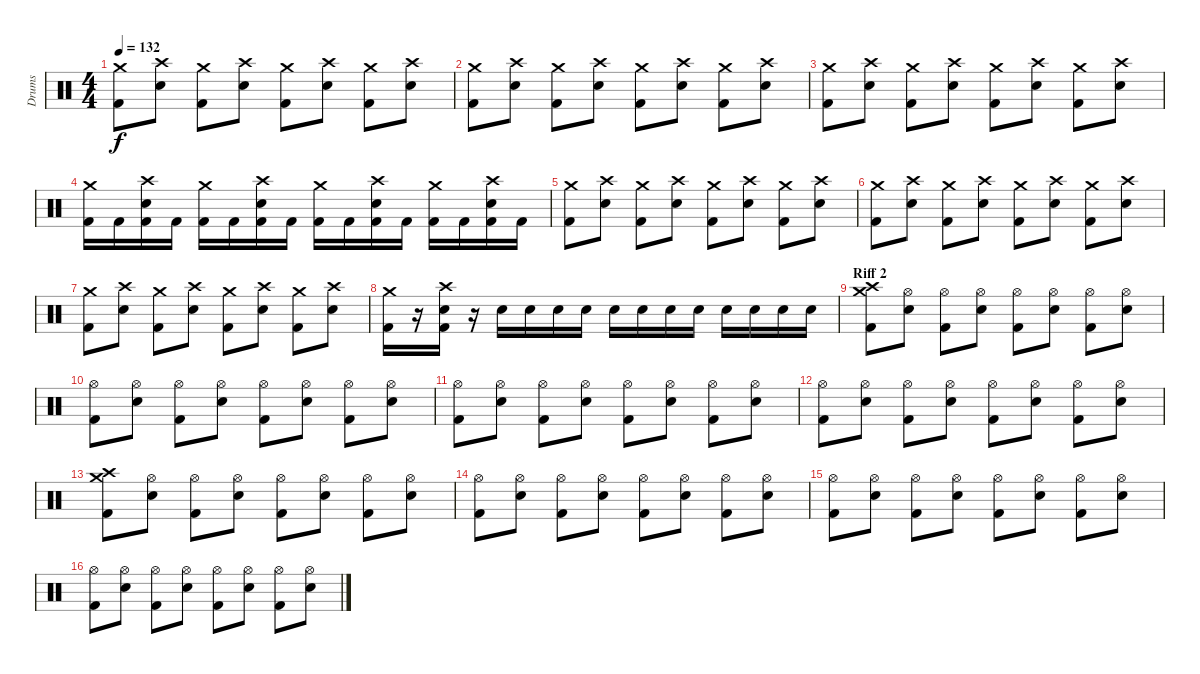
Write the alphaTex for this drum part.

\track ("Drums" "Drums") {instrument percussion}
\staff {score}
\articulation defaults
\ts (4 4)
\tempo 132
\clef neutral
\ks c
("Crash medium (hit)" "Kick (hit) 2").8{dy f} ("Crash high (hit)" "Electric Snare (hit)").8 ("Crash medium (hit)" "Kick (hit) 2").8 ("Crash high (hit)" "Electric Snare (hit)").8 ("Crash medium (hit)" "Kick (hit) 2").8 ("Crash high (hit)" "Electric Snare (hit)").8 ("Crash medium (hit)" "Kick (hit) 2").8 ("Crash high (hit)" "Electric Snare (hit)").8 |
("Crash medium (hit)" "Kick (hit) 2").8 ("Crash high (hit)" "Electric Snare (hit)").8 ("Crash medium (hit)" "Kick (hit) 2").8 ("Crash high (hit)" "Electric Snare (hit)").8 ("Crash medium (hit)" "Kick (hit) 2").8 ("Crash high (hit)" "Electric Snare (hit)").8 ("Crash medium (hit)" "Kick (hit) 2").8 ("Crash high (hit)" "Electric Snare (hit)").8 |
("Crash medium (hit)" "Kick (hit) 2").8 ("Crash high (hit)" "Electric Snare (hit)").8 ("Crash medium (hit)" "Kick (hit) 2").8 ("Crash high (hit)" "Electric Snare (hit)").8 ("Crash medium (hit)" "Kick (hit) 2").8 ("Crash high (hit)" "Electric Snare (hit)").8 ("Crash medium (hit)" "Kick (hit) 2").8 ("Crash high (hit)" "Electric Snare (hit)").8 |
("Crash medium (hit)" "Kick (hit) 2").16 "Kick (hit) 2".16 ("Crash high (hit)" "Kick (hit) 2" "Electric Snare (hit)").16 "Kick (hit) 2".16 ("Crash medium (hit)" "Kick (hit) 2").16 "Kick (hit) 2".16 ("Crash high (hit)" "Kick (hit) 2" "Electric Snare (hit)").16 "Kick (hit) 2".16 ("Crash medium (hit)" "Kick (hit) 2").16 "Kick (hit) 2".16 ("Crash high (hit)" "Kick (hit) 2" "Electric Snare (hit)").16 "Kick (hit) 2".16 ("Crash medium (hit)" "Kick (hit) 2").16 "Kick (hit) 2".16 ("Crash high (hit)" "Kick (hit) 2" "Electric Snare (hit)").16 "Kick (hit) 2".16 |
("Crash medium (hit)" "Kick (hit) 2").8 ("Crash high (hit)" "Electric Snare (hit)").8 ("Crash medium (hit)" "Kick (hit) 2").8 ("Crash high (hit)" "Electric Snare (hit)").8 ("Crash medium (hit)" "Kick (hit) 2").8 ("Crash high (hit)" "Electric Snare (hit)").8 ("Crash medium (hit)" "Kick (hit) 2").8 ("Crash high (hit)" "Electric Snare (hit)").8 |
("Crash medium (hit)" "Kick (hit) 2").8 ("Crash high (hit)" "Electric Snare (hit)").8 ("Crash medium (hit)" "Kick (hit) 2").8 ("Crash high (hit)" "Electric Snare (hit)").8 ("Crash medium (hit)" "Kick (hit) 2").8 ("Crash high (hit)" "Electric Snare (hit)").8 ("Crash medium (hit)" "Kick (hit) 2").8 ("Crash high (hit)" "Electric Snare (hit)").8 |
("Crash medium (hit)" "Kick (hit) 2").8 ("Crash high (hit)" "Electric Snare (hit)").8 ("Crash medium (hit)" "Kick (hit) 2").8 ("Crash high (hit)" "Electric Snare (hit)").8 ("Crash medium (hit)" "Kick (hit) 2").8 ("Crash high (hit)" "Electric Snare (hit)").8 ("Crash medium (hit)" "Kick (hit) 2").8 ("Crash high (hit)" "Electric Snare (hit)").8 |
("Crash medium (hit)" "Kick (hit) 2").16 r.16 ("Crash high (hit)" "Kick (hit) 2" "Electric Snare (hit)").16 r.16 "Electric Snare (hit)".16 "Electric Snare (hit)".16 "Electric Snare (hit)".16 "Electric Snare (hit)".16 "Electric Snare (hit)".16 "Electric Snare (hit)".16 "Electric Snare (hit)".16 "Electric Snare (hit)".16 "Electric Snare (hit)".16 "Electric Snare (hit)".16 "Electric Snare (hit)".16 "Electric Snare (hit)".16 |
\section ("" "Riff 2")
("Crash high (hit)" "Crash medium (hit)" "Kick (hit) 2").8 ("Hi-Hat (open)" "Electric Snare (hit)").8 ("Hi-Hat (open)" "Kick (hit) 2").8 ("Hi-Hat (open)" "Electric Snare (hit)").8 ("Hi-Hat (open)" "Kick (hit) 2").8 ("Hi-Hat (open)" "Electric Snare (hit)").8 ("Hi-Hat (open)" "Kick (hit) 2").8 ("Hi-Hat (open)" "Electric Snare (hit)").8 |
("Hi-Hat (open)" "Kick (hit) 2").8 ("Hi-Hat (open)" "Electric Snare (hit)").8 ("Hi-Hat (open)" "Kick (hit) 2").8 ("Hi-Hat (open)" "Electric Snare (hit)").8 ("Hi-Hat (open)" "Kick (hit) 2").8 ("Hi-Hat (open)" "Electric Snare (hit)").8 ("Hi-Hat (open)" "Kick (hit) 2").8 ("Hi-Hat (open)" "Electric Snare (hit)").8 |
("Hi-Hat (open)" "Kick (hit) 2").8 ("Hi-Hat (open)" "Electric Snare (hit)").8 ("Hi-Hat (open)" "Kick (hit) 2").8 ("Hi-Hat (open)" "Electric Snare (hit)").8 ("Hi-Hat (open)" "Kick (hit) 2").8 ("Hi-Hat (open)" "Electric Snare (hit)").8 ("Hi-Hat (open)" "Kick (hit) 2").8 ("Hi-Hat (open)" "Electric Snare (hit)").8 |
("Hi-Hat (open)" "Kick (hit) 2").8 ("Hi-Hat (open)" "Electric Snare (hit)").8 ("Hi-Hat (open)" "Kick (hit) 2").8 ("Hi-Hat (open)" "Electric Snare (hit)").8 ("Hi-Hat (open)" "Kick (hit) 2").8 ("Hi-Hat (open)" "Electric Snare (hit)").8 ("Hi-Hat (open)" "Kick (hit) 2").8 ("Hi-Hat (open)" "Electric Snare (hit)").8 |
("Crash high (hit)" "Crash medium (hit)" "Kick (hit) 2").8 ("Hi-Hat (open)" "Electric Snare (hit)").8 ("Hi-Hat (open)" "Kick (hit) 2").8 ("Hi-Hat (open)" "Electric Snare (hit)").8 ("Hi-Hat (open)" "Kick (hit) 2").8 ("Hi-Hat (open)" "Electric Snare (hit)").8 ("Hi-Hat (open)" "Kick (hit) 2").8 ("Hi-Hat (open)" "Electric Snare (hit)").8 |
("Hi-Hat (open)" "Kick (hit) 2").8 ("Hi-Hat (open)" "Electric Snare (hit)").8 ("Hi-Hat (open)" "Kick (hit) 2").8 ("Hi-Hat (open)" "Electric Snare (hit)").8 ("Hi-Hat (open)" "Kick (hit) 2").8 ("Hi-Hat (open)" "Electric Snare (hit)").8 ("Hi-Hat (open)" "Kick (hit) 2").8 ("Hi-Hat (open)" "Electric Snare (hit)").8 |
("Hi-Hat (open)" "Kick (hit) 2").8 ("Hi-Hat (open)" "Electric Snare (hit)").8 ("Hi-Hat (open)" "Kick (hit) 2").8 ("Hi-Hat (open)" "Electric Snare (hit)").8 ("Hi-Hat (open)" "Kick (hit) 2").8 ("Hi-Hat (open)" "Electric Snare (hit)").8 ("Hi-Hat (open)" "Kick (hit) 2").8 ("Hi-Hat (open)" "Electric Snare (hit)").8 |
("Hi-Hat (open)" "Kick (hit) 2").8 ("Hi-Hat (open)" "Electric Snare (hit)").8 ("Hi-Hat (open)" "Kick (hit) 2").8 ("Hi-Hat (open)" "Electric Snare (hit)").8 ("Hi-Hat (open)" "Kick (hit) 2").8 ("Hi-Hat (open)" "Electric Snare (hit)").8 ("Hi-Hat (open)" "Kick (hit) 2").8 ("Hi-Hat (open)" "Electric Snare (hit)").8
